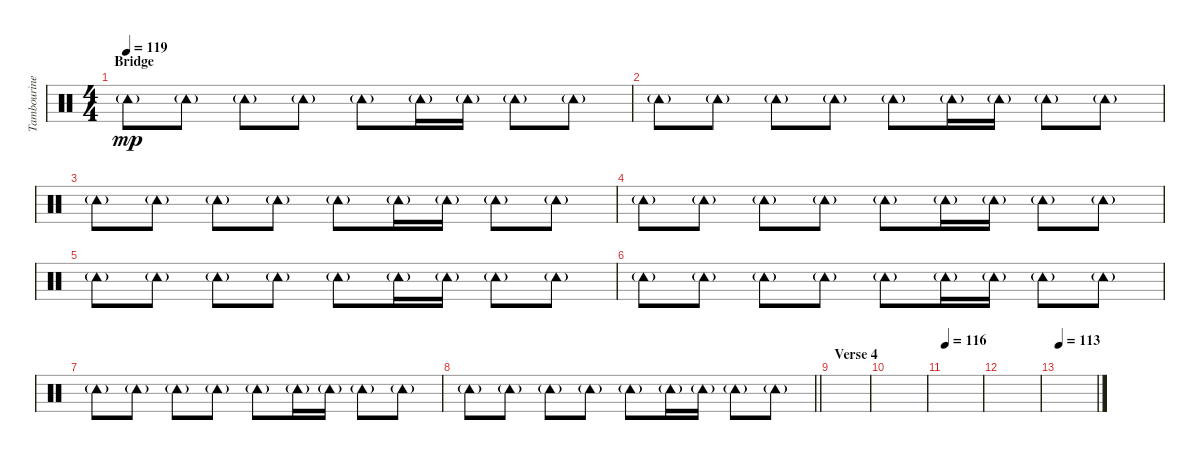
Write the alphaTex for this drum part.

\track ("Tambourine (John Lennon)" "Tambourine") {instrument percussion}
\staff {score}
\articulation defaults
\ts (4 4)
\section ("" "Bridge")
\tempo 119
\clef neutral
\ks c "Tambourine (hit)"{g}.8{dy mp} "Tambourine (hit)"{g}.8 "Tambourine (hit)"{g}.8 "Tambourine (hit)"{g}.8 "Tambourine (hit)"{g}.8 "Tambourine (hit)"{g}.16 "Tambourine (hit)"{g}.16 "Tambourine (hit)"{g}.8 "Tambourine (hit)"{g}.8
|
"Tambourine (hit)"{g}.8 "Tambourine (hit)"{g}.8 "Tambourine (hit)"{g}.8 "Tambourine (hit)"{g}.8 "Tambourine (hit)"{g}.8 "Tambourine (hit)"{g}.16 "Tambourine (hit)"{g}.16 "Tambourine (hit)"{g}.8 "Tambourine (hit)"{g}.8 |
"Tambourine (hit)"{g}.8 "Tambourine (hit)"{g}.8 "Tambourine (hit)"{g}.8 "Tambourine (hit)"{g}.8 "Tambourine (hit)"{g}.8 "Tambourine (hit)"{g}.16 "Tambourine (hit)"{g}.16 "Tambourine (hit)"{g}.8 "Tambourine (hit)"{g}.8 |
"Tambourine (hit)"{g}.8 "Tambourine (hit)"{g}.8 "Tambourine (hit)"{g}.8 "Tambourine (hit)"{g}.8 "Tambourine (hit)"{g}.8 "Tambourine (hit)"{g}.16 "Tambourine (hit)"{g}.16 "Tambourine (hit)"{g}.8 "Tambourine (hit)"{g}.8 |
"Tambourine (hit)"{g}.8 "Tambourine (hit)"{g}.8 "Tambourine (hit)"{g}.8 "Tambourine (hit)"{g}.8 "Tambourine (hit)"{g}.8 "Tambourine (hit)"{g}.16 "Tambourine (hit)"{g}.16 "Tambourine (hit)"{g}.8 "Tambourine (hit)"{g}.8 |
"Tambourine (hit)"{g}.8 "Tambourine (hit)"{g}.8 "Tambourine (hit)"{g}.8 "Tambourine (hit)"{g}.8 "Tambourine (hit)"{g}.8 "Tambourine (hit)"{g}.16 "Tambourine (hit)"{g}.16 "Tambourine (hit)"{g}.8 "Tambourine (hit)"{g}.8 |
"Tambourine (hit)"{g}.8 "Tambourine (hit)"{g}.8 "Tambourine (hit)"{g}.8 "Tambourine (hit)"{g}.8 "Tambourine (hit)"{g}.8 "Tambourine (hit)"{g}.16 "Tambourine (hit)"{g}.16 "Tambourine (hit)"{g}.8 "Tambourine (hit)"{g}.8 |
\barLineRight lightlight "Tambourine (hit)"{g}.8 "Tambourine (hit)"{g}.8 "Tambourine (hit)"{g}.8 "Tambourine (hit)"{g}.8 "Tambourine (hit)"{g}.8 "Tambourine (hit)"{g}.16 "Tambourine (hit)"{g}.16 "Tambourine (hit)"{g}.8 "Tambourine (hit)"{g}.8
|
\section ("" "Verse 4")
|
|
\tempo 116
|
|
\tempo 113
